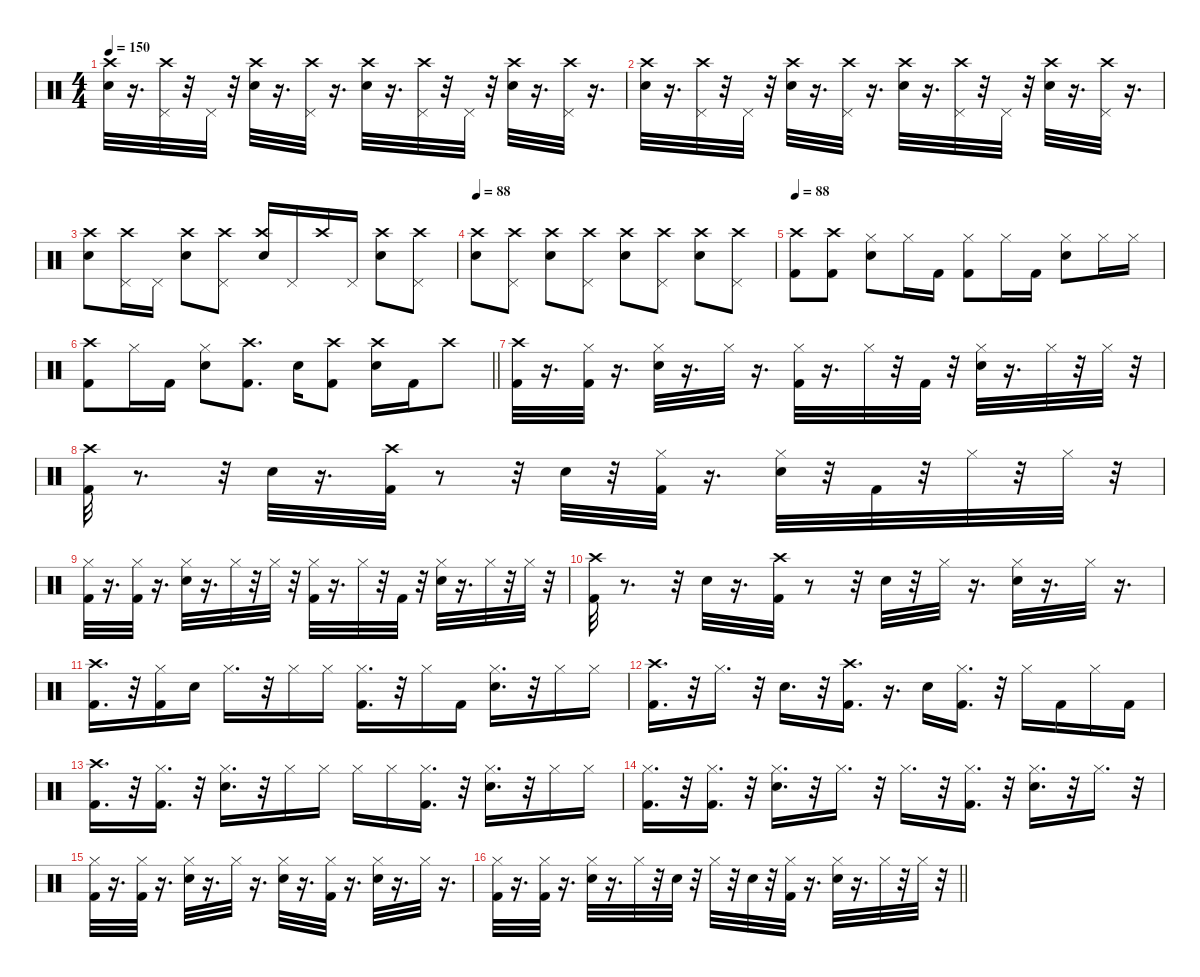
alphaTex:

\defaultSystemsLayout 4
\hideDynamics
\bracketExtendMode nobrackets
\singleTrackTrackNamePolicy hidden
\multiTrackTrackNamePolicy hidden
\firstSystemTrackNameMode fullname
\firstSystemTrackNameOrientation horizontal
\otherSystemsTrackNameOrientation horizontal
\track ("Bonzo" "drm.") {instrument percussion}
\staff {score}
\articulation defaults
\ts (4 4)
\tempo 150
\clef neutral
\ks c
("Snare (hit) 2" "Crash high (hit)").32{dy fff beam Down} r.16{d beam Down} ("Pedal Hi-Hat (hit)" "Crash high (hit)").32{beam Down} r.32{beam Down} "Pedal Hi-Hat (hit)".32{beam Down} r.32{beam Down} ("Snare (hit) 2" "Crash high (hit)").32{beam Down} r.16{d beam Down} ("Pedal Hi-Hat (hit)" "Crash high (hit)").32{beam Down} r.16{d beam Down} ("Snare (hit) 2" "Crash high (hit)").32{beam Down} r.16{d beam Down} ("Pedal Hi-Hat (hit)" "Crash high (hit)").32{beam Down} r.32{beam Down} "Pedal Hi-Hat (hit)".32{beam Down} r.32{beam Down} ("Snare (hit) 2" "Crash high (hit)").32{beam Down} r.16{d beam Down} ("Pedal Hi-Hat (hit)" "Crash high (hit)").32{beam Down} r.16{d beam Down} |
("Snare (hit) 2" "Crash high (hit)").32{beam Down} r.16{d beam Down} ("Pedal Hi-Hat (hit)" "Crash high (hit)").32{beam Down} r.32{beam Down} "Pedal Hi-Hat (hit)".32{beam Down} r.32{beam Down} ("Snare (hit) 2" "Crash high (hit)").32{beam Down} r.16{d beam Down} ("Pedal Hi-Hat (hit)" "Crash high (hit)").32{beam Down} r.16{d beam Down} ("Snare (hit) 2" "Crash high (hit)").32{beam Down} r.16{d beam Down} ("Pedal Hi-Hat (hit)" "Crash high (hit)").32{beam Down} r.32{beam Down} "Pedal Hi-Hat (hit)".32{beam Down} r.32{beam Down} ("Snare (hit) 2" "Crash high (hit)").32{beam Down} r.16{d beam Down} ("Pedal Hi-Hat (hit)" "Crash high (hit)").32{beam Down} r.16{d beam Down} |
("Snare (hit) 2" "Crash high (hit)").8{beam Down} ("Pedal Hi-Hat (hit)" "Crash high (hit)").16{beam Down} "Pedal Hi-Hat (hit)".16{beam Down} ("Snare (hit) 2" "Crash high (hit)").8{beam Down} ("Pedal Hi-Hat (hit)" "Crash high (hit)").8{beam Down} ("Snare (hit) 2" "Crash high (hit)").16{beam Up} "Pedal Hi-Hat (hit)".16{beam Up} "Crash high (hit)".16{dy ff beam Up} "Pedal Hi-Hat (hit)".16{dy fff beam Up} ("Snare (hit) 2" "Crash high (hit)").8{beam Down} ("Pedal Hi-Hat (hit)" "Crash high (hit)").8{beam Down} |
\tempo 88
("Snare (hit) 2" "Crash high (hit)").8{beam Down} ("Pedal Hi-Hat (hit)" "Crash high (hit)").8{beam Down} ("Snare (hit) 2" "Crash high (hit)").8{beam Down} ("Pedal Hi-Hat (hit)" "Crash high (hit)").8{beam Down} ("Snare (hit) 2" "Crash high (hit)").8{beam Down} ("Pedal Hi-Hat (hit)" "Crash high (hit)").8{beam Down} ("Snare (hit) 2" "Crash high (hit)").8{beam Down} ("Pedal Hi-Hat (hit)" "Crash high (hit)").8{beam Down} |
\tempo 88
("Kick (hit) 2" "Crash high (hit)").8{beam Down} ("Kick (hit) 2" "Crash high (hit)").8{beam Down} ("Snare (hit) 2" "Hi-Hat (closed)").8{beam Down} "Hi-Hat (closed)".16{dy ff beam Down} "Kick (hit) 2".16{dy fff beam Down} ("Kick (hit) 2" "Hi-Hat (closed)").8{beam Down} "Hi-Hat (closed)".16{dy ff beam Down} "Kick (hit) 2".16{dy fff beam Down} ("Snare (hit) 2" "Hi-Hat (closed)").8{beam Down} "Hi-Hat (closed)".16{dy ff beam Down} "Hi-Hat (closed)".16{beam Down} |
\barLineRight lightlight
("Kick (hit) 2" "Crash high (hit)").8{dy fff beam Down} "Hi-Hat (closed)".16{dy ff beam Down} "Kick (hit) 2".16{dy fff beam Down} ("Snare (hit) 2" "Hi-Hat (closed)").8{beam Down} ("Kick (hit) 2" "Crash high (hit)").8{d beam Down} "Snare (hit) 2".16{beam Down} ("Kick (hit) 2" "Crash high (hit)").8{beam Down} ("Snare (hit) 2" "Crash high (hit)").16{beam Down} "Kick (hit) 2".16{beam Down} "Crash high (hit)".8{dy ff beam Down} |
("Kick (hit) 2" "Crash high (hit)").32{dy fff beam Down} r.16{d beam Down} ("Kick (hit) 2" "Hi-Hat (closed)").32{beam Down} r.16{d beam Down} ("Snare (hit) 2" "Hi-Hat (closed)").32{beam Down} r.16{d beam Down} "Hi-Hat (closed)".32{dy ff beam Down} r.16{d beam Down} ("Kick (hit) 2" "Hi-Hat (closed)").32{dy fff beam Down} r.16{d beam Down} "Hi-Hat (closed)".32{dy ff beam Down} r.32{beam Down} "Kick (hit) 2".32{dy fff beam Down} r.32{beam Down} ("Snare (hit) 2" "Hi-Hat (closed)").32{beam Down} r.16{d beam Down} "Hi-Hat (closed)".32{dy ff beam Down} r.32{beam Down} "Hi-Hat (closed)".32{beam Down} r.32{beam Down} |
("Kick (hit) 2" "Crash high (hit)").32{dy fff beam Down} r.8{d beam Down} r.32{beam Down} "Snare (hit) 2".32{beam Down} r.16{d beam Down} ("Kick (hit) 2" "Crash high (hit)").32{beam Down} r.8{beam Down} r.32{beam Down} "Snare (hit) 2".32{beam Down} r.32{beam Down} ("Kick (hit) 2" "Hi-Hat (closed)").32{beam Down} r.16{d beam Down} ("Snare (hit) 2" "Hi-Hat (closed)").32{beam Down} r.32{beam Down} "Kick (hit) 2".32{beam Down} r.32{beam Down} "Hi-Hat (closed)".32{dy ff beam Down} r.32{beam Down} "Hi-Hat (closed)".32{beam Down} r.32{beam Down} |
("Kick (hit) 2" "Hi-Hat (closed)").32{dy fff beam Down} r.16{d beam Down} ("Kick (hit) 2" "Hi-Hat (closed)").32{beam Down} r.16{d beam Down} ("Snare (hit) 2" "Hi-Hat (closed)").32{beam Down} r.16{d beam Down} "Hi-Hat (closed)".32{dy ff beam Down} r.32{beam Down} "Hi-Hat (closed)".32{beam Down} r.32{beam Down} ("Kick (hit) 2" "Hi-Hat (closed)").32{dy fff beam Down} r.16{d beam Down} "Hi-Hat (closed)".32{dy ff beam Down} r.32{beam Down} "Kick (hit) 2".32{dy fff beam Down} r.32{beam Down} ("Snare (hit) 2" "Hi-Hat (closed)").32{beam Down} r.16{d beam Down} "Hi-Hat (closed)".32{dy ff beam Down} r.32{beam Down} "Hi-Hat (closed)".32{beam Down} r.32{beam Down} |
("Kick (hit) 2" "Crash high (hit)").32{dy fff beam Down} r.8{d beam Down} r.32{beam Down} "Snare (hit) 2".32{beam Down} r.16{d beam Down} ("Kick (hit) 2" "Crash high (hit)").32{beam Down} r.8{beam Down} r.32{beam Down} "Snare (hit) 2".32{beam Down} r.32{beam Down} "Hi-Hat (closed)".32{dy ff beam Down} r.16{d beam Down} ("Snare (hit) 2" "Hi-Hat (closed)").32{dy fff beam Down} r.16{d beam Down} "Hi-Hat (closed)".32{dy ff beam Down} r.16{d beam Down} |
("Kick (hit) 2" "Crash high (hit)").16{d dy fff beam Down} r.32{beam Down} ("Kick (hit) 2" "Hi-Hat (closed)").16{beam Down} "Snare (hit) 2".16{beam Down} "Hi-Hat (closed)".16{d dy ff beam Down} r.32{beam Down} "Hi-Hat (closed)".16{beam Down} "Hi-Hat (closed)".16{beam Down} ("Kick (hit) 2" "Hi-Hat (closed)").16{d dy fff beam Down} r.32{beam Down} "Hi-Hat (closed)".16{dy ff beam Down} "Kick (hit) 2".16{dy fff beam Down} ("Snare (hit) 2" "Hi-Hat (closed)").16{d beam Down} r.32{beam Down} "Hi-Hat (closed)".16{dy ff beam Down} "Hi-Hat (closed)".16{beam Down} |
("Kick (hit) 2" "Crash high (hit)").16{d dy fff beam Down} r.32{beam Down} "Hi-Hat (closed)".16{d dy ff beam Down} r.32{beam Down} "Snare (hit) 2".16{d dy fff beam Down} r.32{beam Down} ("Kick (hit) 2" "Crash high (hit)").16{d beam Down} r.16{d beam Down} "Snare (hit) 2".16{beam Down} ("Kick (hit) 2" "Hi-Hat (closed)").16{d beam Down} r.32{beam Down} "Hi-Hat (closed)".16{dy ff beam Down} "Kick (hit) 2".16{dy fff beam Down} "Hi-Hat (closed)".16{dy ff beam Down} "Kick (hit) 2".16{dy fff beam Down} |
("Kick (hit) 2" "Crash high (hit)").16{d beam Down} r.32{beam Down} ("Kick (hit) 2" "Hi-Hat (closed)").16{d beam Down} r.32{beam Down} ("Snare (hit) 2" "Hi-Hat (closed)").16{d beam Down} r.32{beam Down} "Hi-Hat (closed)".16{dy ff beam Down} "Hi-Hat (closed)".16{beam Down} "Hi-Hat (closed)".16{beam Down} "Hi-Hat (closed)".16{beam Down} ("Kick (hit) 2" "Hi-Hat (closed)").16{d dy fff beam Down} r.32{beam Down} ("Snare (hit) 2" "Hi-Hat (closed)").16{d beam Down} r.32{beam Down} "Hi-Hat (closed)".16{dy ff beam Down} "Hi-Hat (closed)".16{beam Down} |
("Kick (hit) 2" "Hi-Hat (closed)").16{d dy fff beam Down} r.32{beam Down} ("Kick (hit) 2" "Hi-Hat (closed)").16{d beam Down} r.32{beam Down} ("Snare (hit) 2" "Hi-Hat (closed)").16{d beam Down} r.32{beam Down} "Hi-Hat (closed)".16{d dy ff beam Down} r.32{beam Down} "Hi-Hat (closed)".16{d beam Down} r.32{beam Down} ("Kick (hit) 2" "Hi-Hat (closed)").16{d dy fff beam Down} r.32{beam Down} ("Snare (hit) 2" "Hi-Hat (closed)").16{d beam Down} r.32{beam Down} "Hi-Hat (closed)".16{d dy ff beam Down} r.32{beam Down} |
("Kick (hit) 2" "Hi-Hat (closed)").32{dy fff beam Down} r.16{d beam Down} ("Kick (hit) 2" "Hi-Hat (closed)").32{beam Down} r.16{d beam Down} ("Snare (hit) 2" "Hi-Hat (closed)").32{beam Down} r.16{d beam Down} "Hi-Hat (closed)".32{dy ff beam Down} r.16{d beam Down} ("Snare (hit) 2" "Hi-Hat (closed)").32{dy fff beam Down} r.16{d beam Down} ("Kick (hit) 2" "Hi-Hat (closed)").32{beam Down} r.16{d beam Down} ("Snare (hit) 2" "Hi-Hat (closed)").32{beam Down} r.16{d beam Down} "Hi-Hat (closed)".32{dy ff beam Down} r.16{d beam Down} |
\barLineRight lightlight
("Kick (hit) 2" "Hi-Hat (closed)").32{dy fff beam Down} r.16{d beam Down} ("Kick (hit) 2" "Hi-Hat (closed)").32{beam Down} r.16{d beam Down} ("Snare (hit) 2" "Hi-Hat (closed)").32{beam Down} r.16{d beam Down} "Hi-Hat (closed)".32{dy ff beam Down} r.32{beam Down} "Snare (hit) 2".32{dy fff beam Down} r.32{beam Down} "Hi-Hat (closed)".32{dy ff beam Down} r.32{beam Down} "Snare (hit) 2".32{dy fff beam Down} r.32{beam Down} ("Kick (hit) 2" "Hi-Hat (closed)").32{beam Down} r.16{d beam Down} ("Snare (hit) 2" "Hi-Hat (closed)").32{beam Down} r.16{d beam Down} "Hi-Hat (closed)".32{dy ff beam Down} r.32{beam Down} "Hi-Hat (closed)".32{beam Down} r.32{beam Down}
